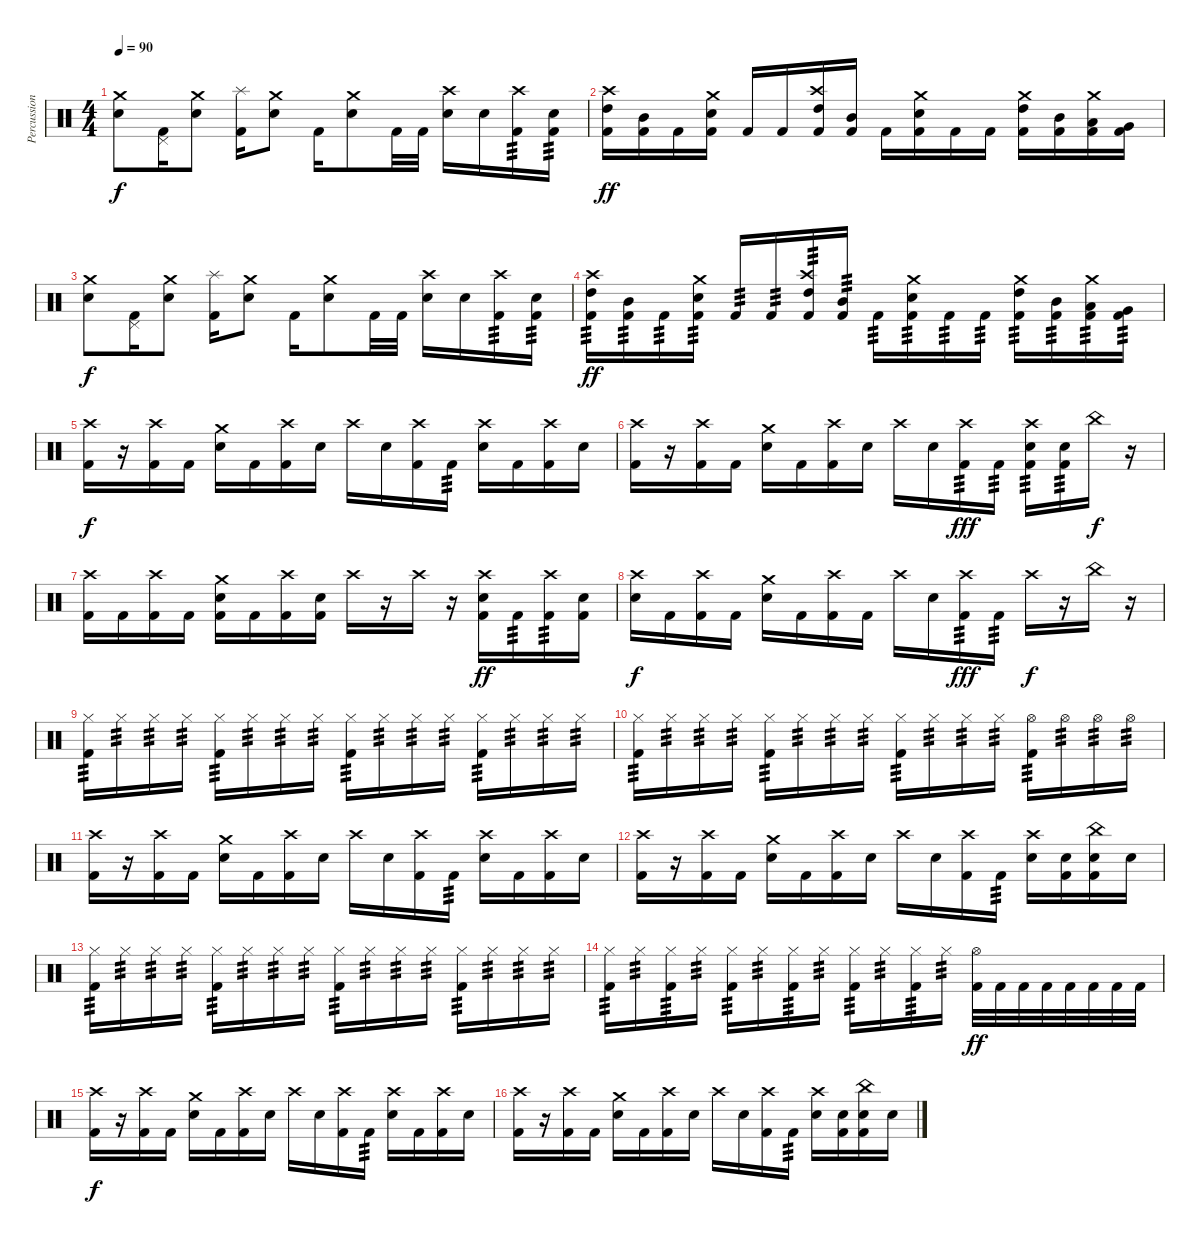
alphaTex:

\track ("Percussion" "Percussion") {instrument percussion}
\staff {score}
\articulation defaults
\ts (4 4)
\tempo 90
\clef neutral
\ks c
("Crash medium (hit)" "Electric Snare (hit)").8{dy f} ("Pedal Hi-Hat (hit)" "Kick (hit) 2").16 ("Crash medium (hit)" "Electric Snare (hit)").8 ("Splash (hit)" "Kick (hit) 2").16 ("Crash medium (hit)" "Electric Snare (hit)").8 "Kick (hit) 2".16 ("Crash medium (hit)" "Electric Snare (hit)").8 "Kick (hit) 2".32 "Kick (hit) 2".32 ("Crash high (hit)" "Electric Snare (hit)").16 "Electric Snare (hit)".16 ("Crash high (hit)" "Kick (hit) 2").16{tp 3} ("Electric Snare (hit)" "Kick (hit) 2").16{tp 3} |
("Crash high (hit)" "High Tom (hit)" "Kick (hit) 2").16{dy ff} ("Mid Tom (hit)" "Kick (hit) 2").16 "Kick (hit) 2".16 ("Crash medium (hit)" "Electric Snare (hit)" "Kick (hit) 2").16 "Kick (hit) 2".16 "Kick (hit) 2".16 ("Crash high (hit)" "High Tom (hit)" "Kick (hit) 2").16 ("Mid Tom (hit)" "Kick (hit) 2").16 "Kick (hit) 2".16 ("Crash medium (hit)" "Electric Snare (hit)" "Kick (hit) 2").16 "Kick (hit) 2".16 "Kick (hit) 2".16 ("Crash medium (hit)" "High Tom (hit)" "Kick (hit) 2").16 ("Mid Tom (hit)" "Kick (hit) 2").16 ("Crash medium (hit)" "Low Tom (hit)" "Kick (hit) 2").16 ("Very Low Tom (hit)" "Kick (hit) 2").16 |
("Crash medium (hit)" "Electric Snare (hit)").8{dy f} ("Pedal Hi-Hat (hit)" "Kick (hit) 2").16 ("Crash medium (hit)" "Electric Snare (hit)").8 ("Splash (hit)" "Kick (hit) 2").16 ("Crash medium (hit)" "Electric Snare (hit)").8 "Kick (hit) 2".16 ("Crash medium (hit)" "Electric Snare (hit)").8 "Kick (hit) 2".32 "Kick (hit) 2".32 ("Crash high (hit)" "Electric Snare (hit)").16 "Electric Snare (hit)".16 ("Crash high (hit)" "Kick (hit) 2").16{tp 3} ("Electric Snare (hit)" "Kick (hit) 2").16{tp 3} |
("Crash high (hit)" "High Tom (hit)" "Kick (hit) 2").16{tp 3 dy ff} ("Mid Tom (hit)" "Kick (hit) 2").16{tp 3} "Kick (hit) 2".16{tp 3} ("Crash medium (hit)" "Electric Snare (hit)" "Kick (hit) 2").16{tp 3} "Kick (hit) 2".16{tp 3} "Kick (hit) 2".16{tp 3} ("Crash high (hit)" "High Tom (hit)" "Kick (hit) 2").16{tp 3} ("Mid Tom (hit)" "Kick (hit) 2").16{tp 3} "Kick (hit) 2".16{tp 3} ("Crash medium (hit)" "Electric Snare (hit)" "Kick (hit) 2").16{tp 3} "Kick (hit) 2".16{tp 3} "Kick (hit) 2".16{tp 3} ("Crash medium (hit)" "High Tom (hit)" "Kick (hit) 2").16{tp 3} ("Mid Tom (hit)" "Kick (hit) 2").16{tp 3} ("Crash medium (hit)" "Low Tom (hit)" "Kick (hit) 2").16{tp 3} ("Very Low Tom (hit)" "Kick (hit) 2").16{tp 3} |
("Crash high (hit)" "Kick (hit) 2").16{dy f} r.16 ("Crash high (hit)" "Kick (hit) 2").16 "Kick (hit) 2".16 ("Crash medium (hit)" "Electric Snare (hit)").16 "Kick (hit) 2".16 ("Crash high (hit)" "Kick (hit) 2").16 "Electric Snare (hit)".16 "Crash high (hit)".16 "Electric Snare (hit)".16 ("Crash high (hit)" "Kick (hit) 2").16 "Kick (hit) 2".16{tp 3} ("Crash high (hit)" "Electric Snare (hit)").16 "Kick (hit) 2".16 ("Crash high (hit)" "Kick (hit) 2").16 "Electric Snare (hit)".16 |
("Crash high (hit)" "Kick (hit) 2").16 r.16 ("Crash high (hit)" "Kick (hit) 2").16 "Kick (hit) 2".16 ("Crash medium (hit)" "Electric Snare (hit)").16 "Kick (hit) 2".16 ("Crash high (hit)" "Kick (hit) 2").16 "Electric Snare (hit)".16 "Crash high (hit)".16 "Electric Snare (hit)".16 ("Crash high (hit)" "Kick (hit) 2").16{tp 3 dy fff} "Kick (hit) 2".16{tp 3} ("Crash high (hit)" "Electric Snare (hit)" "Kick (hit) 2").16{tp 3} ("Electric Snare (hit)" "Kick (hit) 2").16{tp 3} "China (hit)".16{dy f} r.16 |
("Crash high (hit)" "Kick (hit) 2").16 "Kick (hit) 2".16 ("Crash high (hit)" "Kick (hit) 2").16 "Kick (hit) 2".16 ("Crash medium (hit)" "Electric Snare (hit)" "Kick (hit) 2").16 "Kick (hit) 2".16 ("Crash high (hit)" "Kick (hit) 2").16 ("Electric Snare (hit)" "Kick (hit) 2").16 "Crash high (hit)".16 r.16 "Crash high (hit)".16 r.16 ("Crash high (hit)" "Electric Snare (hit)" "Kick (hit) 2").16{dy ff} "Kick (hit) 2".16{tp 3} ("Crash high (hit)" "Kick (hit) 2").16{tp 3} ("Electric Snare (hit)" "Kick (hit) 2").16 |
("Crash high (hit)" "Electric Snare (hit)").16{dy f} "Kick (hit) 2".16 ("Crash high (hit)" "Kick (hit) 2").16 "Kick (hit) 2".16 ("Crash medium (hit)" "Electric Snare (hit)").16 "Kick (hit) 2".16 ("Crash high (hit)" "Kick (hit) 2").16 "Kick (hit) 2".16 "Crash high (hit)".16 "Electric Snare (hit)".16 ("Crash high (hit)" "Kick (hit) 2").16{tp 3 dy fff} "Kick (hit) 2".16{tp 3} "Crash high (hit)".16{dy f} r.16 "China (hit)".16 r.16 |
("Hi-Hat (closed)" "Kick (hit) 2").16{tp 3} "Hi-Hat (closed)".16{tp 3} "Hi-Hat (closed)".16{tp 3} "Hi-Hat (closed)".16{tp 3} ("Hi-Hat (closed)" "Kick (hit) 2").16{tp 3} "Hi-Hat (closed)".16{tp 3} "Hi-Hat (closed)".16{tp 3} "Hi-Hat (closed)".16{tp 3} ("Hi-Hat (closed)" "Kick (hit) 2").16{tp 3} "Hi-Hat (closed)".16{tp 3} "Hi-Hat (closed)".16{tp 3} "Hi-Hat (closed)".16{tp 3} ("Hi-Hat (closed)" "Kick (hit) 2").16{tp 3} "Hi-Hat (closed)".16{tp 3} "Hi-Hat (closed)".16{tp 3} "Hi-Hat (closed)".16{tp 3} |
("Hi-Hat (closed)" "Kick (hit) 2").16{tp 3} "Hi-Hat (closed)".16{tp 3} "Hi-Hat (closed)".16{tp 3} "Hi-Hat (closed)".16{tp 3} ("Hi-Hat (closed)" "Kick (hit) 2").16{tp 3} "Hi-Hat (closed)".16{tp 3} "Hi-Hat (closed)".16{tp 3} "Hi-Hat (closed)".16{tp 3} ("Hi-Hat (closed)" "Kick (hit) 2").16{tp 3} "Hi-Hat (closed)".16{tp 3} "Hi-Hat (closed)".16{tp 3} "Hi-Hat (closed)".16{tp 3} ("Hi-Hat (open)" "Kick (hit) 2").16{tp 3} "Hi-Hat (open)".16{tp 3} "Hi-Hat (open)".16{tp 3} "Hi-Hat (open)".16{tp 3} |
("Crash high (hit)" "Kick (hit) 2").16 r.16 ("Crash high (hit)" "Kick (hit) 2").16 "Kick (hit) 2".16 ("Crash medium (hit)" "Electric Snare (hit)").16 "Kick (hit) 2".16 ("Crash high (hit)" "Kick (hit) 2").16 "Electric Snare (hit)".16 "Crash high (hit)".16 "Electric Snare (hit)".16 ("Crash high (hit)" "Kick (hit) 2").16 "Kick (hit) 2".16{tp 3} ("Crash high (hit)" "Electric Snare (hit)").16 "Kick (hit) 2".16 ("Crash high (hit)" "Kick (hit) 2").16 "Electric Snare (hit)".16 |
("Crash high (hit)" "Kick (hit) 2").16 r.16 ("Crash high (hit)" "Kick (hit) 2").16 "Kick (hit) 2".16 ("Crash medium (hit)" "Electric Snare (hit)").16 "Kick (hit) 2".16 ("Crash high (hit)" "Kick (hit) 2").16 "Electric Snare (hit)".16 "Crash high (hit)".16 "Electric Snare (hit)".16 ("Crash high (hit)" "Kick (hit) 2").16 "Kick (hit) 2".16{tp 3} ("Crash high (hit)" "Electric Snare (hit)").16 ("Electric Snare (hit)" "Kick (hit) 2").16 ("China (hit)" "Electric Snare (hit)" "Kick (hit) 2").16 "Electric Snare (hit)".16 |
("Hi-Hat (closed)" "Kick (hit) 2").16{tp 3} "Hi-Hat (closed)".16{tp 3} "Hi-Hat (closed)".16{tp 3} "Hi-Hat (closed)".16{tp 3} ("Hi-Hat (closed)" "Kick (hit) 2").16{tp 3} "Hi-Hat (closed)".16{tp 3} "Hi-Hat (closed)".16{tp 3} "Hi-Hat (closed)".16{tp 3} ("Hi-Hat (closed)" "Kick (hit) 2").16{tp 3} "Hi-Hat (closed)".16{tp 3} "Hi-Hat (closed)".16{tp 3} "Hi-Hat (closed)".16{tp 3} ("Hi-Hat (closed)" "Kick (hit) 2").16{tp 3} "Hi-Hat (closed)".16{tp 3} "Hi-Hat (closed)".16{tp 3} "Hi-Hat (closed)".16{tp 3} |
("Hi-Hat (closed)" "Kick (hit) 2").16{tp 3} "Hi-Hat (closed)".16{tp 3} ("Hi-Hat (closed)" "Kick (hit) 2").16{tp 3} "Hi-Hat (closed)".16{tp 3} ("Hi-Hat (closed)" "Kick (hit) 2").16{tp 3} "Hi-Hat (closed)".16{tp 3} ("Hi-Hat (closed)" "Kick (hit) 2").16{tp 3} "Hi-Hat (closed)".16{tp 3} ("Hi-Hat (closed)" "Kick (hit) 2").16{tp 3} "Hi-Hat (closed)".16{tp 3} ("Hi-Hat (closed)" "Kick (hit) 2").16{tp 3} "Hi-Hat (closed)".16{tp 3} ("Hi-Hat (open)" "Kick (hit) 2").32{dy ff} "Kick (hit) 2".32 "Kick (hit) 2".32 "Kick (hit) 2".32 "Kick (hit) 2".32 "Kick (hit) 2".32 "Kick (hit) 2".32 "Kick (hit) 2".32 |
("Crash high (hit)" "Kick (hit) 2").16{dy f} r.16 ("Crash high (hit)" "Kick (hit) 2").16 "Kick (hit) 2".16 ("Crash medium (hit)" "Electric Snare (hit)").16 "Kick (hit) 2".16 ("Crash high (hit)" "Kick (hit) 2").16 "Electric Snare (hit)".16 "Crash high (hit)".16 "Electric Snare (hit)".16 ("Crash high (hit)" "Kick (hit) 2").16 "Kick (hit) 2".16{tp 3} ("Crash high (hit)" "Electric Snare (hit)").16 "Kick (hit) 2".16 ("Crash high (hit)" "Kick (hit) 2").16 "Electric Snare (hit)".16 |
("Crash high (hit)" "Kick (hit) 2").16 r.16 ("Crash high (hit)" "Kick (hit) 2").16 "Kick (hit) 2".16 ("Crash medium (hit)" "Electric Snare (hit)").16 "Kick (hit) 2".16 ("Crash high (hit)" "Kick (hit) 2").16 "Electric Snare (hit)".16 "Crash high (hit)".16 "Electric Snare (hit)".16 ("Crash high (hit)" "Kick (hit) 2").16 "Kick (hit) 2".16{tp 3} ("Crash high (hit)" "Electric Snare (hit)").16 ("Electric Snare (hit)" "Kick (hit) 2").16 ("China (hit)" "Electric Snare (hit)" "Kick (hit) 2").16 "Electric Snare (hit)".16
